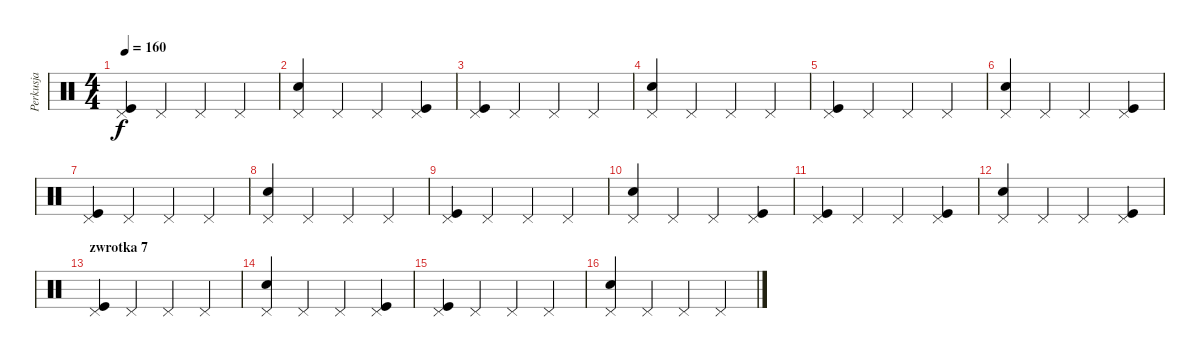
\track ("Perkusja" "Perkusja") {instrument percussion}
\staff {score}
\articulation defaults
\ts (4 4)
\tempo 160
\clef neutral
\ks c
("Kick (hit)" "Pedal Hi-Hat (hit)").4{dy f} "Pedal Hi-Hat (hit)".4 "Pedal Hi-Hat (hit)".4 "Pedal Hi-Hat (hit)".4 |
("Snare (hit) 2" "Pedal Hi-Hat (hit)").4 "Pedal Hi-Hat (hit)".4 "Pedal Hi-Hat (hit)".4 ("Kick (hit)" "Pedal Hi-Hat (hit)").4 |
("Kick (hit)" "Pedal Hi-Hat (hit)").4 "Pedal Hi-Hat (hit)".4 "Pedal Hi-Hat (hit)".4 "Pedal Hi-Hat (hit)".4 |
("Snare (hit) 2" "Pedal Hi-Hat (hit)").4 "Pedal Hi-Hat (hit)".4 "Pedal Hi-Hat (hit)".4 "Pedal Hi-Hat (hit)".4 |
("Kick (hit)" "Pedal Hi-Hat (hit)").4 "Pedal Hi-Hat (hit)".4 "Pedal Hi-Hat (hit)".4 "Pedal Hi-Hat (hit)".4 |
("Snare (hit) 2" "Pedal Hi-Hat (hit)").4 "Pedal Hi-Hat (hit)".4 "Pedal Hi-Hat (hit)".4 ("Kick (hit)" "Pedal Hi-Hat (hit)").4 |
("Kick (hit)" "Pedal Hi-Hat (hit)").4 "Pedal Hi-Hat (hit)".4 "Pedal Hi-Hat (hit)".4 "Pedal Hi-Hat (hit)".4 |
("Snare (hit) 2" "Pedal Hi-Hat (hit)").4 "Pedal Hi-Hat (hit)".4 "Pedal Hi-Hat (hit)".4 "Pedal Hi-Hat (hit)".4 |
("Kick (hit)" "Pedal Hi-Hat (hit)").4 "Pedal Hi-Hat (hit)".4 "Pedal Hi-Hat (hit)".4 "Pedal Hi-Hat (hit)".4 |
("Snare (hit) 2" "Pedal Hi-Hat (hit)").4 "Pedal Hi-Hat (hit)".4 "Pedal Hi-Hat (hit)".4 ("Kick (hit)" "Pedal Hi-Hat (hit)").4 |
("Kick (hit)" "Pedal Hi-Hat (hit)").4 "Pedal Hi-Hat (hit)".4 "Pedal Hi-Hat (hit)".4 ("Kick (hit)" "Pedal Hi-Hat (hit)").4 |
("Snare (hit) 2" "Pedal Hi-Hat (hit)").4 "Pedal Hi-Hat (hit)".4 "Pedal Hi-Hat (hit)".4 ("Kick (hit)" "Pedal Hi-Hat (hit)").4 |
\section ("" "zwrotka 7")
("Kick (hit)" "Pedal Hi-Hat (hit)").4 "Pedal Hi-Hat (hit)".4 "Pedal Hi-Hat (hit)".4 "Pedal Hi-Hat (hit)".4 |
("Snare (hit) 2" "Pedal Hi-Hat (hit)").4 "Pedal Hi-Hat (hit)".4 "Pedal Hi-Hat (hit)".4 ("Kick (hit)" "Pedal Hi-Hat (hit)").4 |
("Kick (hit)" "Pedal Hi-Hat (hit)").4 "Pedal Hi-Hat (hit)".4 "Pedal Hi-Hat (hit)".4 "Pedal Hi-Hat (hit)".4 |
("Snare (hit) 2" "Pedal Hi-Hat (hit)").4 "Pedal Hi-Hat (hit)".4 "Pedal Hi-Hat (hit)".4 "Pedal Hi-Hat (hit)".4
